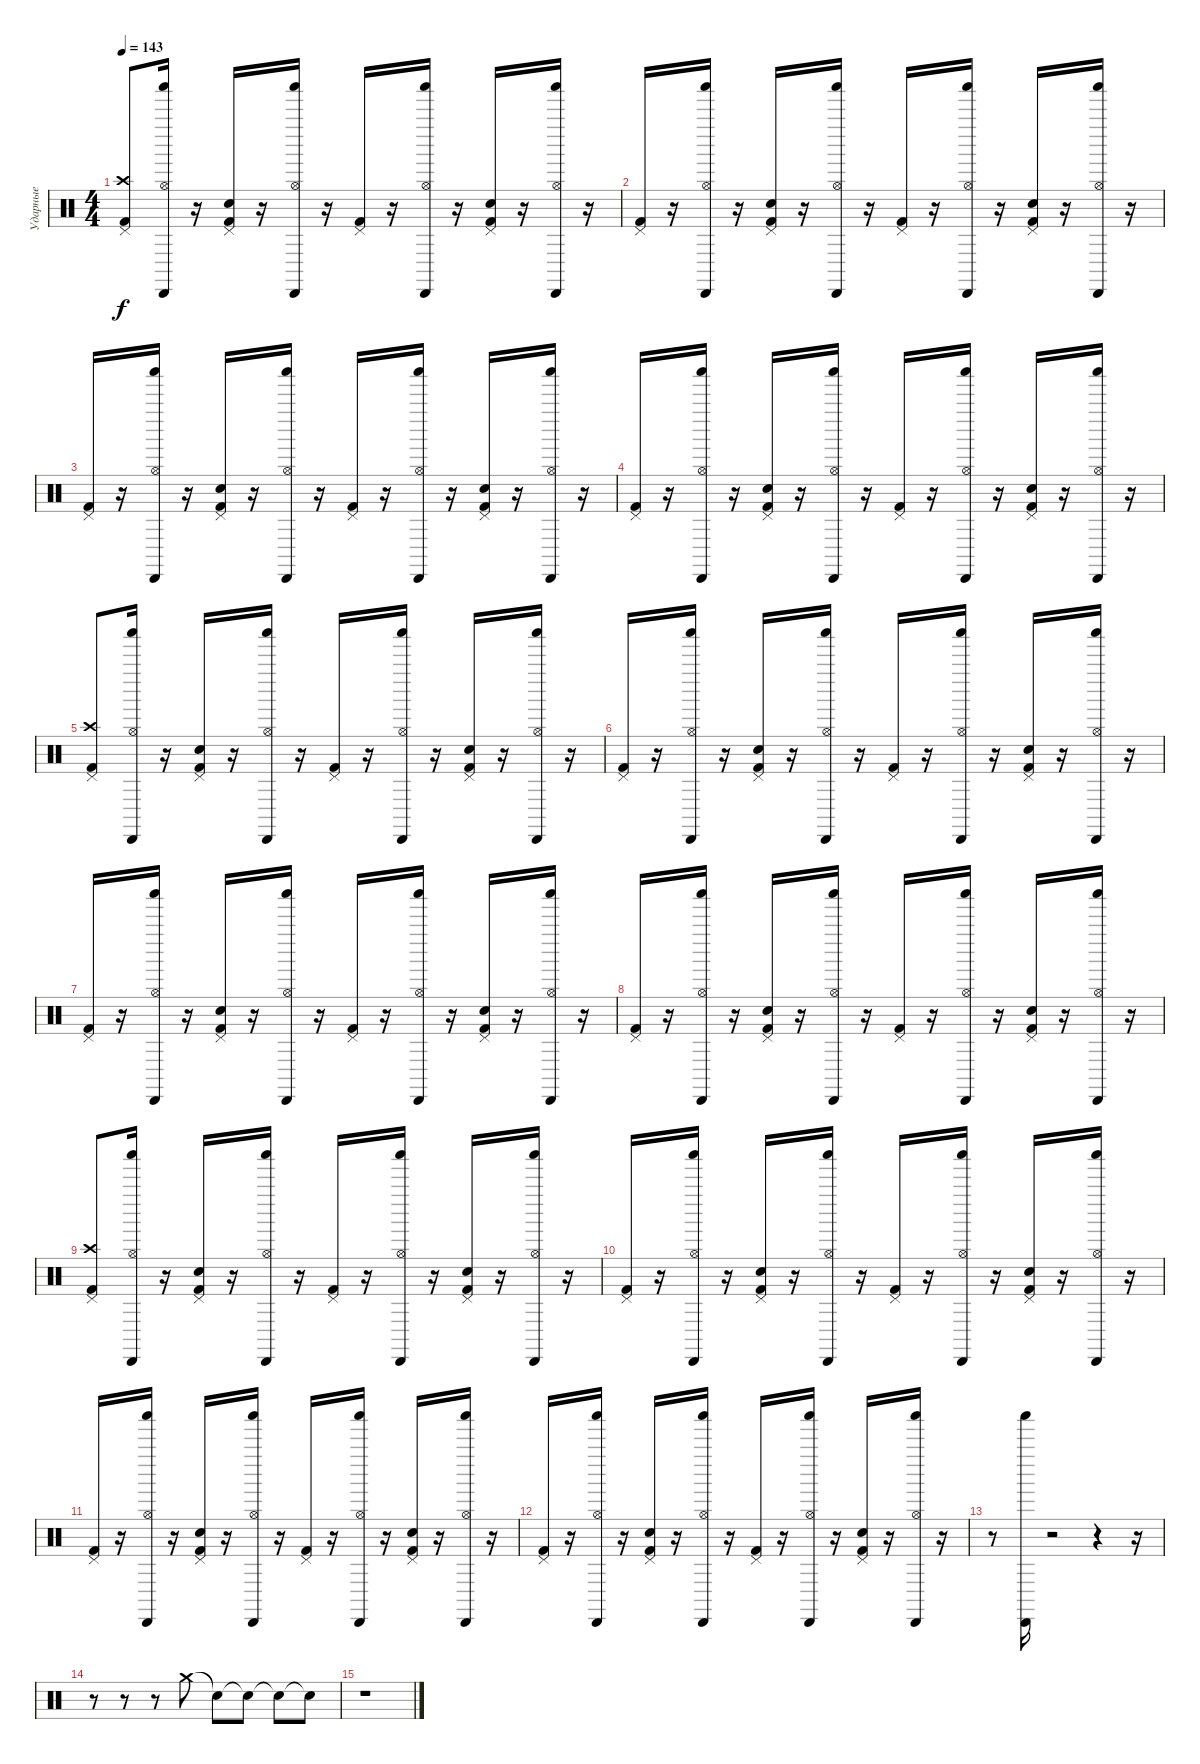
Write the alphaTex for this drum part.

\track ("Ударные" "Ударные") {instrument percussion}
\staff {score}
\articulation defaults
\ts (4 4)
\tempo 143
\clef neutral
\ks c
("Kick (hit) 2" "Crash high (hit)" "Pedal Hi-Hat (hit)").8{dy f} ("Hi-Hat (open)" "Shaker (hit)" "Cabasa (hit)").16 r.16 ("Kick (hit) 2" "Snare (hit) 2" "Pedal Hi-Hat (hit)").16 r.16 ("Hi-Hat (open)" "Shaker (hit)" "Cabasa (hit)").16 r.16 ("Kick (hit) 2" "Pedal Hi-Hat (hit)").16 r.16 ("Hi-Hat (open)" "Shaker (hit)" "Cabasa (hit)").16 r.16 ("Snare (hit) 2" "Kick (hit) 2" "Pedal Hi-Hat (hit)").16 r.16 ("Hi-Hat (open)" "Shaker (hit)" "Cabasa (hit)").16 r.16 |
("Kick (hit) 2" "Pedal Hi-Hat (hit)").16 r.16 ("Hi-Hat (open)" "Shaker (hit)" "Cabasa (hit)").16 r.16 ("Kick (hit) 2" "Snare (hit) 2" "Pedal Hi-Hat (hit)").16 r.16 ("Hi-Hat (open)" "Shaker (hit)" "Cabasa (hit)").16 r.16 ("Kick (hit) 2" "Pedal Hi-Hat (hit)").16 r.16 ("Hi-Hat (open)" "Shaker (hit)" "Cabasa (hit)").16 r.16 ("Snare (hit) 2" "Kick (hit) 2" "Pedal Hi-Hat (hit)").16 r.16 ("Hi-Hat (open)" "Shaker (hit)" "Cabasa (hit)").16 r.16 |
("Kick (hit) 2" "Pedal Hi-Hat (hit)").16 r.16 ("Hi-Hat (open)" "Shaker (hit)" "Cabasa (hit)").16 r.16 ("Snare (hit) 2" "Kick (hit) 2" "Pedal Hi-Hat (hit)").16 r.16 ("Hi-Hat (open)" "Shaker (hit)" "Cabasa (hit)").16 r.16 ("Kick (hit) 2" "Pedal Hi-Hat (hit)").16 r.16 ("Hi-Hat (open)" "Shaker (hit)" "Cabasa (hit)").16 r.16 ("Snare (hit) 2" "Kick (hit) 2" "Pedal Hi-Hat (hit)").16 r.16 ("Hi-Hat (open)" "Shaker (hit)" "Cabasa (hit)").16 r.16 |
("Kick (hit) 2" "Pedal Hi-Hat (hit)").16 r.16 ("Hi-Hat (open)" "Shaker (hit)" "Cabasa (hit)").16 r.16 ("Snare (hit) 2" "Kick (hit) 2" "Pedal Hi-Hat (hit)").16 r.16 ("Hi-Hat (open)" "Shaker (hit)" "Cabasa (hit)").16 r.16 ("Kick (hit) 2" "Pedal Hi-Hat (hit)").16 r.16 ("Hi-Hat (open)" "Shaker (hit)" "Cabasa (hit)").16 r.16 ("Snare (hit) 2" "Kick (hit) 2" "Pedal Hi-Hat (hit)").16 r.16 ("Hi-Hat (open)" "Shaker (hit)" "Cabasa (hit)").16 r.16 |
("Crash high (hit)" "Kick (hit) 2" "Pedal Hi-Hat (hit)").8 ("Hi-Hat (open)" "Shaker (hit)" "Cabasa (hit)").16 r.16 ("Snare (hit) 2" "Kick (hit) 2" "Pedal Hi-Hat (hit)").16 r.16 ("Hi-Hat (open)" "Shaker (hit)" "Cabasa (hit)").16 r.16 ("Kick (hit) 2" "Pedal Hi-Hat (hit)").16 r.16 ("Hi-Hat (open)" "Shaker (hit)" "Cabasa (hit)").16 r.16 ("Kick (hit) 2" "Snare (hit) 2" "Pedal Hi-Hat (hit)").16 r.16 ("Hi-Hat (open)" "Shaker (hit)" "Cabasa (hit)").16 r.16 |
("Kick (hit) 2" "Pedal Hi-Hat (hit)").16 r.16 ("Hi-Hat (open)" "Shaker (hit)" "Cabasa (hit)").16 r.16 ("Kick (hit) 2" "Snare (hit) 2" "Pedal Hi-Hat (hit)").16 r.16 ("Hi-Hat (open)" "Shaker (hit)" "Cabasa (hit)").16 r.16 ("Kick (hit) 2" "Pedal Hi-Hat (hit)").16 r.16 ("Hi-Hat (open)" "Shaker (hit)" "Cabasa (hit)").16 r.16 ("Kick (hit) 2" "Snare (hit) 2" "Pedal Hi-Hat (hit)").16 r.16 ("Hi-Hat (open)" "Shaker (hit)" "Cabasa (hit)").16 r.16 |
("Kick (hit) 2" "Pedal Hi-Hat (hit)").16 r.16 ("Hi-Hat (open)" "Shaker (hit)" "Cabasa (hit)").16 r.16 ("Snare (hit) 2" "Kick (hit) 2" "Pedal Hi-Hat (hit)").16 r.16 ("Hi-Hat (open)" "Shaker (hit)" "Cabasa (hit)").16 r.16 ("Kick (hit) 2" "Pedal Hi-Hat (hit)").16 r.16 ("Hi-Hat (open)" "Shaker (hit)" "Cabasa (hit)").16 r.16 ("Snare (hit) 2" "Kick (hit) 2" "Pedal Hi-Hat (hit)").16 r.16 ("Hi-Hat (open)" "Shaker (hit)" "Cabasa (hit)").16 r.16 |
("Kick (hit) 2" "Pedal Hi-Hat (hit)").16 r.16 ("Hi-Hat (open)" "Shaker (hit)" "Cabasa (hit)").16 r.16 ("Kick (hit) 2" "Snare (hit) 2" "Pedal Hi-Hat (hit)").16 r.16 ("Hi-Hat (open)" "Shaker (hit)" "Cabasa (hit)").16 r.16 ("Kick (hit) 2" "Pedal Hi-Hat (hit)").16 r.16 ("Hi-Hat (open)" "Shaker (hit)" "Cabasa (hit)").16 r.16 ("Snare (hit) 2" "Kick (hit) 2" "Pedal Hi-Hat (hit)").16 r.16 ("Hi-Hat (open)" "Shaker (hit)" "Cabasa (hit)").16 r.16 |
("Crash high (hit)" "Kick (hit) 2" "Pedal Hi-Hat (hit)").8 ("Hi-Hat (open)" "Shaker (hit)" "Cabasa (hit)").16 r.16 ("Snare (hit) 2" "Kick (hit) 2" "Pedal Hi-Hat (hit)").16 r.16 ("Hi-Hat (open)" "Shaker (hit)" "Cabasa (hit)").16 r.16 ("Kick (hit) 2" "Pedal Hi-Hat (hit)").16 r.16 ("Hi-Hat (open)" "Shaker (hit)" "Cabasa (hit)").16 r.16 ("Kick (hit) 2" "Snare (hit) 2" "Pedal Hi-Hat (hit)").16 r.16 ("Hi-Hat (open)" "Shaker (hit)" "Cabasa (hit)").16 r.16 |
("Kick (hit) 2" "Pedal Hi-Hat (hit)").16 r.16 ("Hi-Hat (open)" "Shaker (hit)" "Cabasa (hit)").16 r.16 ("Kick (hit) 2" "Snare (hit) 2" "Pedal Hi-Hat (hit)").16 r.16 ("Hi-Hat (open)" "Shaker (hit)" "Cabasa (hit)").16 r.16 ("Kick (hit) 2" "Pedal Hi-Hat (hit)").16 r.16 ("Hi-Hat (open)" "Shaker (hit)" "Cabasa (hit)").16 r.16 ("Kick (hit) 2" "Snare (hit) 2" "Pedal Hi-Hat (hit)").16 r.16 ("Hi-Hat (open)" "Shaker (hit)" "Cabasa (hit)").16 r.16 |
("Kick (hit) 2" "Pedal Hi-Hat (hit)").16 r.16 ("Hi-Hat (open)" "Shaker (hit)" "Cabasa (hit)").16 r.16 ("Snare (hit) 2" "Kick (hit) 2" "Pedal Hi-Hat (hit)").16 r.16 ("Hi-Hat (open)" "Shaker (hit)" "Cabasa (hit)").16 r.16 ("Kick (hit) 2" "Pedal Hi-Hat (hit)").16 r.16 ("Hi-Hat (open)" "Shaker (hit)" "Cabasa (hit)").16 r.16 ("Snare (hit) 2" "Kick (hit) 2" "Pedal Hi-Hat (hit)").16 r.16 ("Hi-Hat (open)" "Shaker (hit)" "Cabasa (hit)").16 r.16 |
("Kick (hit) 2" "Pedal Hi-Hat (hit)").16 r.16 ("Hi-Hat (open)" "Shaker (hit)" "Cabasa (hit)").16 r.16 ("Kick (hit) 2" "Snare (hit) 2" "Pedal Hi-Hat (hit)").16 r.16 ("Hi-Hat (open)" "Shaker (hit)" "Cabasa (hit)").16 r.16 ("Kick (hit) 2" "Pedal Hi-Hat (hit)").16 r.16 ("Hi-Hat (open)" "Shaker (hit)" "Cabasa (hit)").16 r.16 ("Snare (hit) 2" "Kick (hit) 2" "Pedal Hi-Hat (hit)").16 r.16 ("Hi-Hat (open)" "Shaker (hit)" "Cabasa (hit)").16 r.16 |
r.8 ("Shaker (hit)" "Cabasa (hit)").16 r.2 r.4 r.16 |
r.8 r.8 r.8 "Crash medium (hit)".8 "Snare (hit)"{t}.8 "Snare (hit)"{t}.8 "Snare (hit)"{t}.8 "Snare (hit)"{t}.8 |
r.1
